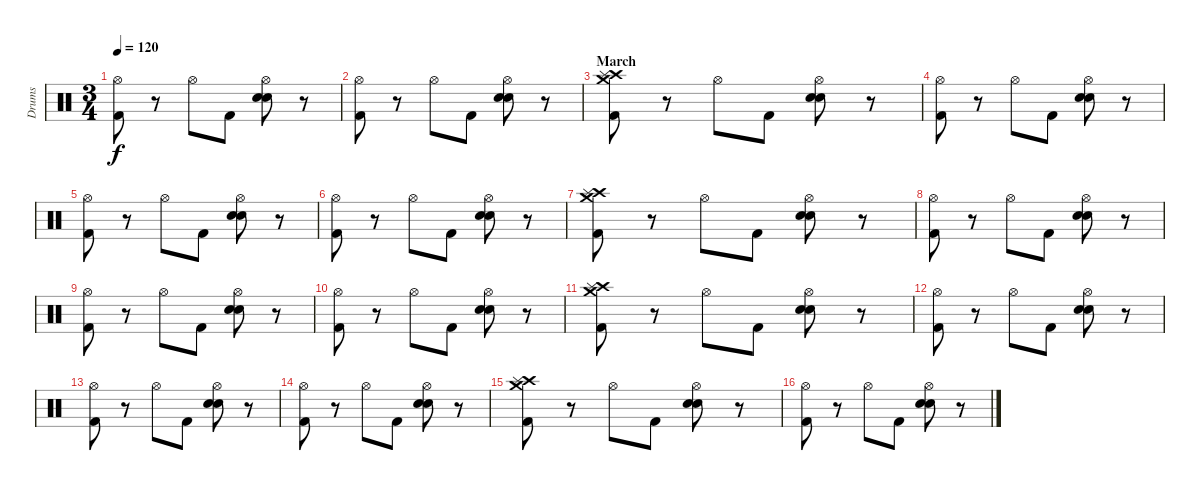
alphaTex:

\track ("Drums" "Drums") {instrument percussion}
\staff {score}
\articulation defaults
\ts (3 4)
\tempo 120
\clef neutral
\ks c
("Kick (hit) 2" "Hi-Hat (open)").8{dy f} r.8 "Hi-Hat (open)".8 "Kick (hit) 2".8 ("Electric Snare (hit)" "Electric Snare (hit)" "Hi-Hat (open)").8 r.8 |
("Kick (hit) 2" "Hi-Hat (open)").8 r.8 "Hi-Hat (open)".8 "Kick (hit) 2".8 ("Electric Snare (hit)" "Electric Snare (hit)" "Hi-Hat (open)").8 r.8 |
\section ("" "March")
("Kick (hit) 2" "Crash medium (hit)" "Crash high (hit)" "Splash (hit)").8 r.8 "Hi-Hat (open)".8 "Kick (hit) 2".8 ("Electric Snare (hit)" "Electric Snare (hit)" "Hi-Hat (open)").8 r.8 |
("Kick (hit) 2" "Hi-Hat (open)").8 r.8 "Hi-Hat (open)".8 "Kick (hit) 2".8 ("Electric Snare (hit)" "Electric Snare (hit)" "Hi-Hat (open)").8 r.8 |
("Kick (hit) 2" "Hi-Hat (open)").8 r.8 "Hi-Hat (open)".8 "Kick (hit) 2".8 ("Electric Snare (hit)" "Electric Snare (hit)" "Hi-Hat (open)").8 r.8 |
("Kick (hit) 2" "Hi-Hat (open)").8 r.8 "Hi-Hat (open)".8 "Kick (hit) 2".8 ("Electric Snare (hit)" "Electric Snare (hit)" "Hi-Hat (open)").8 r.8 |
("Kick (hit) 2" "Crash medium (hit)" "Crash high (hit)" "Splash (hit)").8 r.8 "Hi-Hat (open)".8 "Kick (hit) 2".8 ("Electric Snare (hit)" "Electric Snare (hit)" "Hi-Hat (open)").8 r.8 |
("Kick (hit) 2" "Hi-Hat (open)").8 r.8 "Hi-Hat (open)".8 "Kick (hit) 2".8 ("Electric Snare (hit)" "Electric Snare (hit)" "Hi-Hat (open)").8 r.8 |
("Kick (hit) 2" "Hi-Hat (open)").8 r.8 "Hi-Hat (open)".8 "Kick (hit) 2".8 ("Electric Snare (hit)" "Electric Snare (hit)" "Hi-Hat (open)").8 r.8 |
("Kick (hit) 2" "Hi-Hat (open)").8 r.8 "Hi-Hat (open)".8 "Kick (hit) 2".8 ("Electric Snare (hit)" "Electric Snare (hit)" "Hi-Hat (open)").8 r.8 |
("Kick (hit) 2" "Crash medium (hit)" "Crash high (hit)" "Splash (hit)").8 r.8 "Hi-Hat (open)".8 "Kick (hit) 2".8 ("Electric Snare (hit)" "Electric Snare (hit)" "Hi-Hat (open)").8 r.8 |
("Kick (hit) 2" "Hi-Hat (open)").8 r.8 "Hi-Hat (open)".8 "Kick (hit) 2".8 ("Electric Snare (hit)" "Electric Snare (hit)" "Hi-Hat (open)").8 r.8 |
("Kick (hit) 2" "Hi-Hat (open)").8 r.8 "Hi-Hat (open)".8 "Kick (hit) 2".8 ("Electric Snare (hit)" "Electric Snare (hit)" "Hi-Hat (open)").8 r.8 |
("Kick (hit) 2" "Hi-Hat (open)").8 r.8 "Hi-Hat (open)".8 "Kick (hit) 2".8 ("Electric Snare (hit)" "Electric Snare (hit)" "Hi-Hat (open)").8 r.8 |
("Kick (hit) 2" "Crash medium (hit)" "Crash high (hit)" "Splash (hit)").8 r.8 "Hi-Hat (open)".8 "Kick (hit) 2".8 ("Electric Snare (hit)" "Electric Snare (hit)" "Hi-Hat (open)").8 r.8 |
("Kick (hit) 2" "Hi-Hat (open)").8 r.8 "Hi-Hat (open)".8 "Kick (hit) 2".8 ("Electric Snare (hit)" "Electric Snare (hit)" "Hi-Hat (open)").8 r.8
